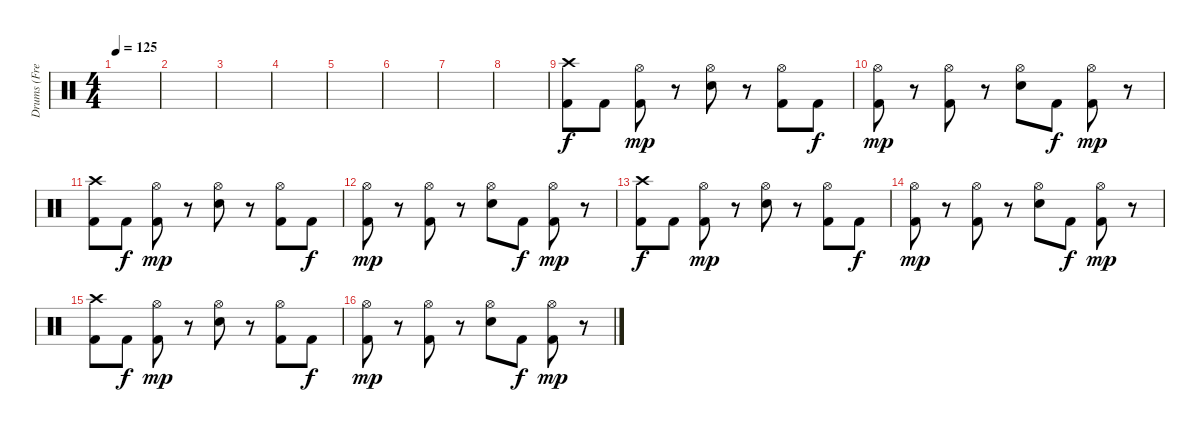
\track ("Drums (Fredrik Andersson)" "Drums (Fre") {instrument percussion}
\staff {score}
\articulation defaults
\ts (4 4)
\tempo 125
\clef neutral
\ks c
|
|
|
|
|
|
|
|
("Crash high (hit)" "Kick (hit) 2").8 "Kick (hit) 2".8 ("Hi-Hat (open)" "Kick (hit) 2").8{dy mp} r.8 ("Hi-Hat (open)" "Snare (hit) 2").8 r.8 ("Hi-Hat (open)" "Kick (hit) 2").8 "Kick (hit) 2".8{dy f} |
("Hi-Hat (open)" "Kick (hit) 2").8{dy mp} r.8 ("Hi-Hat (open)" "Kick (hit) 2").8 r.8 ("Hi-Hat (open)" "Snare (hit) 2").8 "Kick (hit) 2".8{dy f} ("Hi-Hat (open)" "Kick (hit) 2").8{dy mp} r.8 |
("Crash high (hit)" "Kick (hit) 2").8 "Kick (hit) 2".8{dy f} ("Hi-Hat (open)" "Kick (hit) 2").8{dy mp} r.8 ("Hi-Hat (open)" "Snare (hit) 2").8 r.8 ("Hi-Hat (open)" "Kick (hit) 2").8 "Kick (hit) 2".8{dy f} |
("Hi-Hat (open)" "Kick (hit) 2").8{dy mp} r.8 ("Hi-Hat (open)" "Kick (hit) 2").8 r.8 ("Hi-Hat (open)" "Snare (hit) 2").8 "Kick (hit) 2".8{dy f} ("Hi-Hat (open)" "Kick (hit) 2").8{dy mp} r.8 |
("Crash high (hit)" "Kick (hit) 2").8{dy f} "Kick (hit) 2".8 ("Hi-Hat (open)" "Kick (hit) 2").8{dy mp} r.8 ("Hi-Hat (open)" "Snare (hit) 2").8 r.8 ("Hi-Hat (open)" "Kick (hit) 2").8 "Kick (hit) 2".8{dy f} |
("Hi-Hat (open)" "Kick (hit) 2").8{dy mp} r.8 ("Hi-Hat (open)" "Kick (hit) 2").8 r.8 ("Hi-Hat (open)" "Snare (hit) 2").8 "Kick (hit) 2".8{dy f} ("Hi-Hat (open)" "Kick (hit) 2").8{dy mp} r.8 |
("Crash high (hit)" "Kick (hit) 2").8 "Kick (hit) 2".8{dy f} ("Hi-Hat (open)" "Kick (hit) 2").8{dy mp} r.8 ("Hi-Hat (open)" "Snare (hit) 2").8 r.8 ("Hi-Hat (open)" "Kick (hit) 2").8 "Kick (hit) 2".8{dy f} |
("Hi-Hat (open)" "Kick (hit) 2").8{dy mp} r.8 ("Hi-Hat (open)" "Kick (hit) 2").8 r.8 ("Hi-Hat (open)" "Snare (hit) 2").8 "Kick (hit) 2".8{dy f} ("Hi-Hat (open)" "Kick (hit) 2").8{dy mp} r.8
